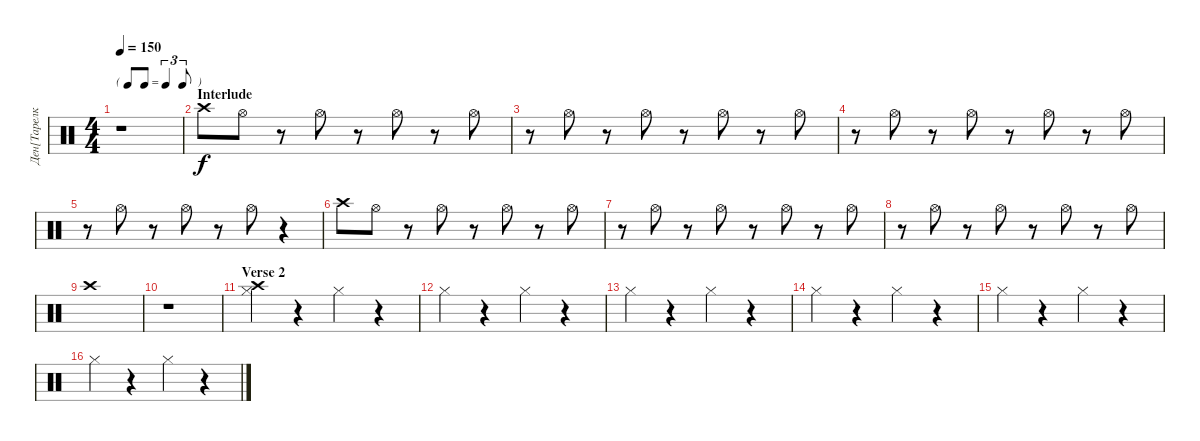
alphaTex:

\track ("Ден[Тарелки]" "Ден[Тарелк") {instrument percussion}
\staff {score}
\articulation defaults
\ts (4 4)
\tf triplet8th
\tempo 150
\clef neutral
\ks c
r.1{dy f} |
\section ("" "Interlude")
"Crash high (hit)".8 "Hi-Hat (open)".8 r.8 "Hi-Hat (open)".8 r.8 "Hi-Hat (open)".8 r.8 "Hi-Hat (open)".8 |
r.8 "Hi-Hat (open)".8 r.8 "Hi-Hat (open)".8 r.8 "Hi-Hat (open)".8 r.8 "Hi-Hat (open)".8 |
r.8 "Hi-Hat (open)".8 r.8 "Hi-Hat (open)".8 r.8 "Hi-Hat (open)".8 r.8 "Hi-Hat (open)".8 |
r.8 "Hi-Hat (open)".8 r.8 "Hi-Hat (open)".8 r.8 "Hi-Hat (open)".8 r.4 |
"Crash high (hit)".8 "Hi-Hat (open)".8 r.8 "Hi-Hat (open)".8 r.8 "Hi-Hat (open)".8 r.8 "Hi-Hat (open)".8 |
r.8 "Hi-Hat (open)".8 r.8 "Hi-Hat (open)".8 r.8 "Hi-Hat (open)".8 r.8 "Hi-Hat (open)".8 |
r.8 "Hi-Hat (open)".8 r.8 "Hi-Hat (open)".8 r.8 "Hi-Hat (open)".8 r.8 "Hi-Hat (open)".8 |
"Crash high (hit)".1 |
r.1 |
\section ("" "Verse 2")
("Hi-Hat (closed)" "Crash high (hit)").4 r.4 "Hi-Hat (closed)".4 r.4 |
"Hi-Hat (closed)".4 r.4 "Hi-Hat (closed)".4 r.4 |
"Hi-Hat (closed)".4 r.4 "Hi-Hat (closed)".4 r.4 |
"Hi-Hat (closed)".4 r.4 "Hi-Hat (closed)".4 r.4 |
"Hi-Hat (closed)".4 r.4 "Hi-Hat (closed)".4 r.4 |
"Hi-Hat (closed)".4 r.4 "Hi-Hat (closed)".4 r.4
